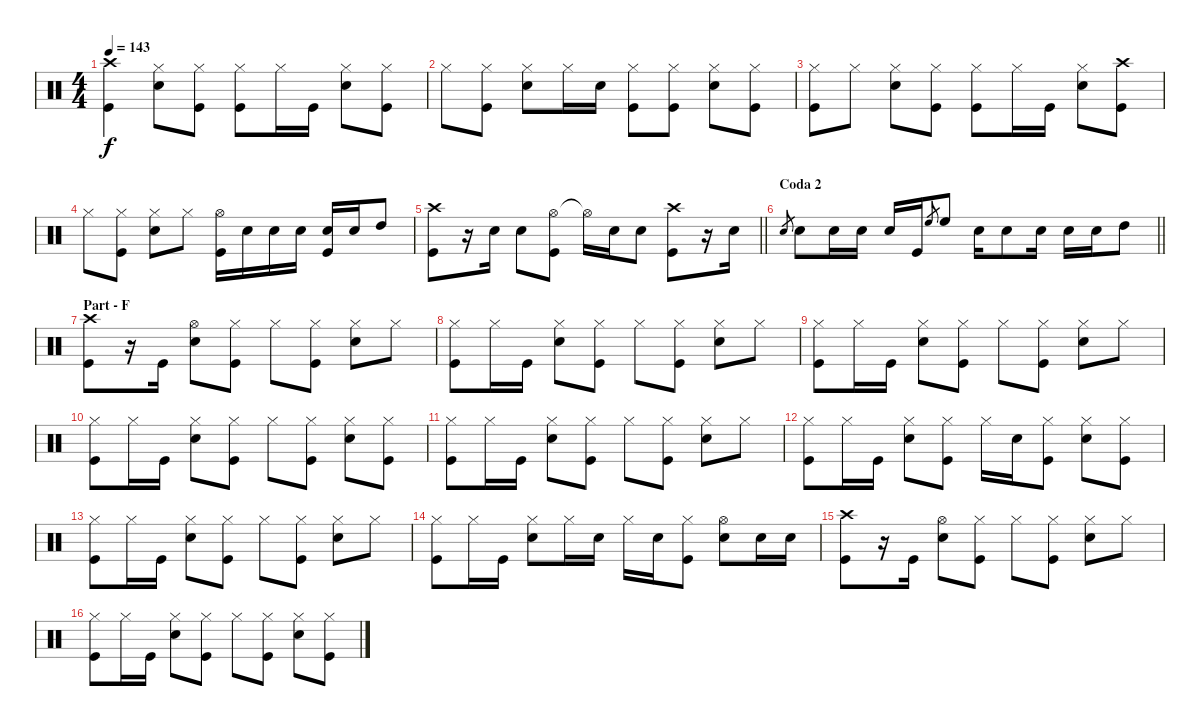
\track "" {instrument percussion}
\staff {score}
\articulation defaults
\ts (4 4)
\tempo 143
\clef neutral
\ks c
("Crash high (hit)" "Kick (hit)").4{dy f} ("Hi-Hat (closed)" "Snare (hit) 2").8 ("Hi-Hat (closed)" "Kick (hit)").8 ("Hi-Hat (closed)" "Kick (hit)").8 "Hi-Hat (closed)".16 "Kick (hit)".16 ("Hi-Hat (closed)" "Snare (hit) 2").8 ("Hi-Hat (closed)" "Kick (hit)").8 |
"Hi-Hat (closed)".8 ("Hi-Hat (closed)" "Kick (hit)").8 ("Hi-Hat (closed)" "Snare (hit) 2").8 "Hi-Hat (closed)".16 "Snare (hit) 2".16 ("Hi-Hat (closed)" "Kick (hit)").8 ("Hi-Hat (closed)" "Kick (hit)").8 ("Hi-Hat (closed)" "Snare (hit) 2").8 ("Hi-Hat (closed)" "Kick (hit)").8 |
("Hi-Hat (closed)" "Kick (hit)").8 "Hi-Hat (closed)".8 ("Hi-Hat (closed)" "Snare (hit) 2").8 ("Hi-Hat (closed)" "Kick (hit)").8 ("Hi-Hat (closed)" "Kick (hit)").8 "Hi-Hat (closed)".16 "Kick (hit)".16 ("Hi-Hat (closed)" "Snare (hit) 2").8 ("Crash high (hit)" "Kick (hit)").8 |
"Hi-Hat (closed)".8 ("Hi-Hat (closed)" "Kick (hit)").8 ("Hi-Hat (closed)" "Snare (hit) 2").8 "Hi-Hat (closed)".8 ("Hi-Hat (open)" "Kick (hit)").16 "Snare (hit) 2".16 "Snare (hit) 2".16 "Snare (hit) 2".16 ("Snare (hit) 2" "Kick (hit)").16 "Snare (hit) 2".16 "High Tom (hit)".8 |
\barLineRight lightlight
("Crash high (hit)" "Kick (hit)").8 r.16 "Snare (hit) 2".16 "Snare (hit) 2".8 ("Hi-Hat (open)" "Kick (hit)").8 "Hi-Hat (open)"{t}.16 "Snare (hit) 2".16 "Snare (hit) 2".8 ("Crash high (hit)" "Kick (hit)").8 r.16 "Snare (hit) 2".16 |
\section ("" "Coda 2")
\barLineRight lightlight "Snare (hit) 2".8{gr} "Snare (hit) 2".8 "Snare (hit) 2".16 "Snare (hit) 2".16 "Snare (hit) 2".16 "Kick (hit)".16 "High Floor Tom (hit)".8{gr} "High Floor Tom (hit)".8 "Snare (hit) 2".16 "Snare (hit) 2".8 "Snare (hit) 2".16 "Snare (hit) 2".16 "Snare (hit) 2".16 "High Tom (hit)".8
|
\section ("" "Part - F")
("Crash high (hit)" "Kick (hit)").8 r.16 "Kick (hit)".16 ("Hi-Hat (open)" "Snare (hit) 2").8 ("Hi-Hat (closed)" "Kick (hit)").8 "Hi-Hat (closed)".8 ("Hi-Hat (closed)" "Kick (hit)").8 ("Hi-Hat (closed)" "Snare (hit) 2").8 "Hi-Hat (closed)".8 |
("Hi-Hat (closed)" "Kick (hit)").8 "Hi-Hat (closed)".16 "Kick (hit)".16 ("Hi-Hat (closed)" "Snare (hit) 2").8 ("Hi-Hat (closed)" "Kick (hit)").8 "Hi-Hat (closed)".8 ("Hi-Hat (closed)" "Kick (hit)").8 ("Hi-Hat (closed)" "Snare (hit) 2").8 "Hi-Hat (closed)".8 |
("Hi-Hat (closed)" "Kick (hit)").8 "Hi-Hat (closed)".16 "Kick (hit)".16 ("Hi-Hat (closed)" "Snare (hit) 2").8 ("Hi-Hat (closed)" "Kick (hit)").8 "Hi-Hat (closed)".8 ("Hi-Hat (closed)" "Kick (hit)").8 ("Hi-Hat (closed)" "Snare (hit) 2").8 "Hi-Hat (closed)".8 |
("Hi-Hat (closed)" "Kick (hit)").8 "Hi-Hat (closed)".16 "Kick (hit)".16 ("Hi-Hat (closed)" "Snare (hit) 2").8 ("Hi-Hat (closed)" "Kick (hit)").8 "Hi-Hat (closed)".8 ("Hi-Hat (closed)" "Kick (hit)").8 ("Hi-Hat (closed)" "Snare (hit) 2").8 ("Hi-Hat (closed)" "Kick (hit)").8 |
("Hi-Hat (closed)" "Kick (hit)").8 "Hi-Hat (closed)".16 "Kick (hit)".16 ("Hi-Hat (closed)" "Snare (hit) 2").8 ("Hi-Hat (closed)" "Kick (hit)").8 "Hi-Hat (closed)".8 ("Hi-Hat (closed)" "Kick (hit)").8 ("Hi-Hat (closed)" "Snare (hit) 2").8 "Hi-Hat (closed)".8 |
("Hi-Hat (closed)" "Kick (hit)").8 "Hi-Hat (closed)".16 "Kick (hit)".16 ("Hi-Hat (closed)" "Snare (hit) 2").8 ("Hi-Hat (closed)" "Kick (hit)").8 "Hi-Hat (closed)".16 "Snare (hit) 2".16 ("Hi-Hat (closed)" "Kick (hit)").8 ("Hi-Hat (closed)" "Snare (hit) 2").8 ("Hi-Hat (closed)" "Kick (hit)").8 |
("Hi-Hat (closed)" "Kick (hit)").8 "Hi-Hat (closed)".16 "Kick (hit)".16 ("Hi-Hat (closed)" "Snare (hit) 2").8 ("Hi-Hat (closed)" "Kick (hit)").8 "Hi-Hat (closed)".8 ("Hi-Hat (closed)" "Kick (hit)").8 ("Hi-Hat (closed)" "Snare (hit) 2").8 "Hi-Hat (closed)".8 |
("Hi-Hat (closed)" "Kick (hit)").8 "Hi-Hat (closed)".16 "Kick (hit)".16 ("Hi-Hat (closed)" "Snare (hit) 2").8 "Hi-Hat (closed)".16 "Snare (hit) 2".16 "Hi-Hat (closed)".16 "Snare (hit) 2".16 ("Hi-Hat (closed)" "Kick (hit)").8 ("Hi-Hat (open)" "Snare (hit) 2").8 "Snare (hit) 2".16 "Snare (hit) 2".16 |
("Crash high (hit)" "Kick (hit)").8 r.16 "Kick (hit)".16 ("Hi-Hat (open)" "Snare (hit) 2").8 ("Hi-Hat (closed)" "Kick (hit)").8 "Hi-Hat (closed)".8 ("Hi-Hat (closed)" "Kick (hit)").8 ("Hi-Hat (closed)" "Snare (hit) 2").8 "Hi-Hat (closed)".8 |
("Hi-Hat (closed)" "Kick (hit)").8 "Hi-Hat (closed)".16 "Kick (hit)".16 ("Hi-Hat (closed)" "Snare (hit) 2").8 ("Hi-Hat (closed)" "Kick (hit)").8 "Hi-Hat (closed)".8 ("Hi-Hat (closed)" "Kick (hit)").8 ("Hi-Hat (closed)" "Snare (hit) 2").8 ("Hi-Hat (closed)" "Kick (hit)").8
